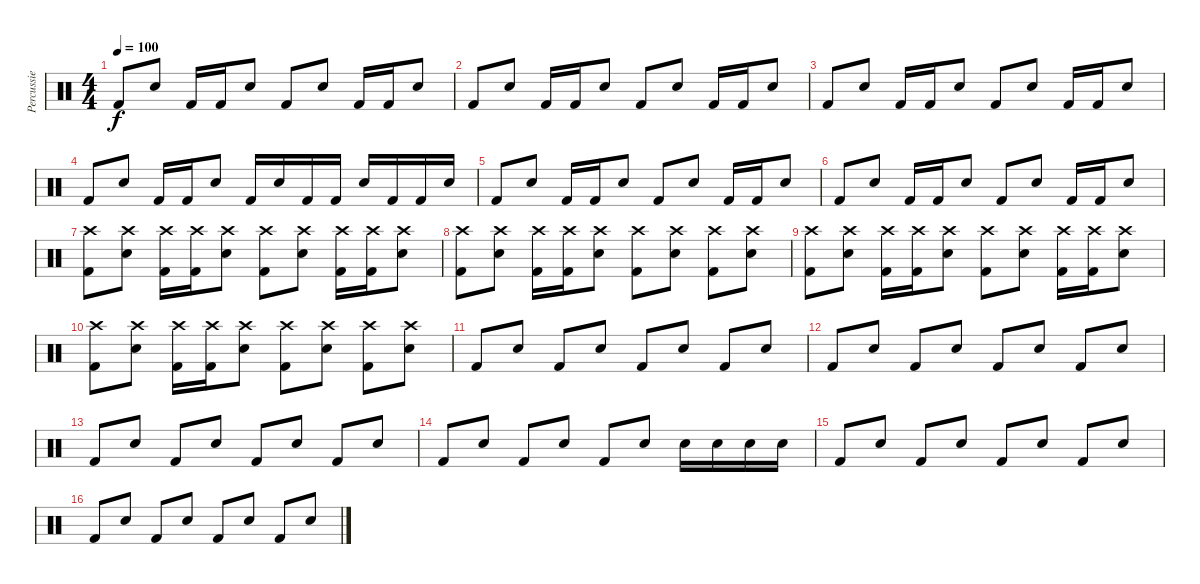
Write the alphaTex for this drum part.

\track ("Percussie" "Percussie") {instrument percussion}
\staff {score}
\articulation defaults
\ts (4 4)
\tempo 100
\clef neutral
\ks c "Kick (hit) 2".8{dy f} "Electric Snare (hit)".8 "Kick (hit) 2".16 "Kick (hit) 2".16 "Electric Snare (hit)".8 "Kick (hit) 2".8 "Electric Snare (hit)".8 "Kick (hit) 2".16 "Kick (hit) 2".16 "Electric Snare (hit)".8
|
"Kick (hit) 2".8 "Electric Snare (hit)".8 "Kick (hit) 2".16 "Kick (hit) 2".16 "Electric Snare (hit)".8 "Kick (hit) 2".8 "Electric Snare (hit)".8 "Kick (hit) 2".16 "Kick (hit) 2".16 "Electric Snare (hit)".8 |
"Kick (hit) 2".8 "Electric Snare (hit)".8 "Kick (hit) 2".16 "Kick (hit) 2".16 "Electric Snare (hit)".8 "Kick (hit) 2".8 "Electric Snare (hit)".8 "Kick (hit) 2".16 "Kick (hit) 2".16 "Electric Snare (hit)".8 |
"Kick (hit) 2".8 "Electric Snare (hit)".8 "Kick (hit) 2".16 "Kick (hit) 2".16 "Electric Snare (hit)".8 "Kick (hit) 2".16 "Electric Snare (hit)".16 "Kick (hit) 2".16 "Kick (hit) 2".16 "Electric Snare (hit)".16 "Kick (hit) 2".16 "Kick (hit) 2".16 "Electric Snare (hit)".16 |
"Kick (hit) 2".8 "Electric Snare (hit)".8 "Kick (hit) 2".16 "Kick (hit) 2".16 "Electric Snare (hit)".8 "Kick (hit) 2".8 "Electric Snare (hit)".8 "Kick (hit) 2".16 "Kick (hit) 2".16 "Electric Snare (hit)".8 |
"Kick (hit) 2".8 "Electric Snare (hit)".8 "Kick (hit) 2".16 "Kick (hit) 2".16 "Electric Snare (hit)".8 "Kick (hit) 2".8 "Electric Snare (hit)".8 "Kick (hit) 2".16 "Kick (hit) 2".16 "Electric Snare (hit)".8 |
("Crash high (hit)" "Kick (hit) 2").8 ("Crash high (hit)" "Electric Snare (hit)").8 ("Crash high (hit)" "Kick (hit) 2").16 ("Crash high (hit)" "Kick (hit) 2").16 ("Crash high (hit)" "Electric Snare (hit)").8 ("Crash high (hit)" "Kick (hit) 2").8 ("Crash high (hit)" "Electric Snare (hit)").8 ("Crash high (hit)" "Kick (hit) 2").16 ("Crash high (hit)" "Kick (hit) 2").16 ("Crash high (hit)" "Electric Snare (hit)").8 |
("Crash high (hit)" "Kick (hit) 2").8 ("Crash high (hit)" "Electric Snare (hit)").8 ("Crash high (hit)" "Kick (hit) 2").16 ("Crash high (hit)" "Kick (hit) 2").16 ("Crash high (hit)" "Electric Snare (hit)").8 ("Crash high (hit)" "Kick (hit) 2").8 ("Crash high (hit)" "Electric Snare (hit)").8 ("Crash high (hit)" "Kick (hit) 2").8 ("Crash high (hit)" "Electric Snare (hit)").8 |
("Crash high (hit)" "Kick (hit) 2").8 ("Crash high (hit)" "Electric Snare (hit)").8 ("Crash high (hit)" "Kick (hit) 2").16 ("Crash high (hit)" "Kick (hit) 2").16 ("Crash high (hit)" "Electric Snare (hit)").8 ("Crash high (hit)" "Kick (hit) 2").8 ("Crash high (hit)" "Electric Snare (hit)").8 ("Crash high (hit)" "Kick (hit) 2").16 ("Crash high (hit)" "Kick (hit) 2").16 ("Crash high (hit)" "Electric Snare (hit)").8 |
("Crash high (hit)" "Kick (hit) 2").8 ("Crash high (hit)" "Electric Snare (hit)").8 ("Crash high (hit)" "Kick (hit) 2").16 ("Crash high (hit)" "Kick (hit) 2").16 ("Crash high (hit)" "Electric Snare (hit)").8 ("Crash high (hit)" "Kick (hit) 2").8 ("Crash high (hit)" "Electric Snare (hit)").8 ("Crash high (hit)" "Kick (hit) 2").8 ("Crash high (hit)" "Electric Snare (hit)").8 |
"Kick (hit) 2".8 "Electric Snare (hit)".8 "Kick (hit) 2".8 "Electric Snare (hit)".8 "Kick (hit) 2".8 "Electric Snare (hit)".8 "Kick (hit) 2".8 "Electric Snare (hit)".8 |
"Kick (hit) 2".8 "Electric Snare (hit)".8 "Kick (hit) 2".8 "Electric Snare (hit)".8 "Kick (hit) 2".8 "Electric Snare (hit)".8 "Kick (hit) 2".8 "Electric Snare (hit)".8 |
"Kick (hit) 2".8 "Electric Snare (hit)".8 "Kick (hit) 2".8 "Electric Snare (hit)".8 "Kick (hit) 2".8 "Electric Snare (hit)".8 "Kick (hit) 2".8 "Electric Snare (hit)".8 |
"Kick (hit) 2".8 "Electric Snare (hit)".8 "Kick (hit) 2".8 "Electric Snare (hit)".8 "Kick (hit) 2".8 "Electric Snare (hit)".8 "Electric Snare (hit)".16 "Electric Snare (hit)".16 "Electric Snare (hit)".16 "Electric Snare (hit)".16 |
"Kick (hit) 2".8 "Electric Snare (hit)".8 "Kick (hit) 2".8 "Electric Snare (hit)".8 "Kick (hit) 2".8 "Electric Snare (hit)".8 "Kick (hit) 2".8 "Electric Snare (hit)".8 |
"Kick (hit) 2".8 "Electric Snare (hit)".8 "Kick (hit) 2".8 "Electric Snare (hit)".8 "Kick (hit) 2".8 "Electric Snare (hit)".8 "Kick (hit) 2".8 "Electric Snare (hit)".8
